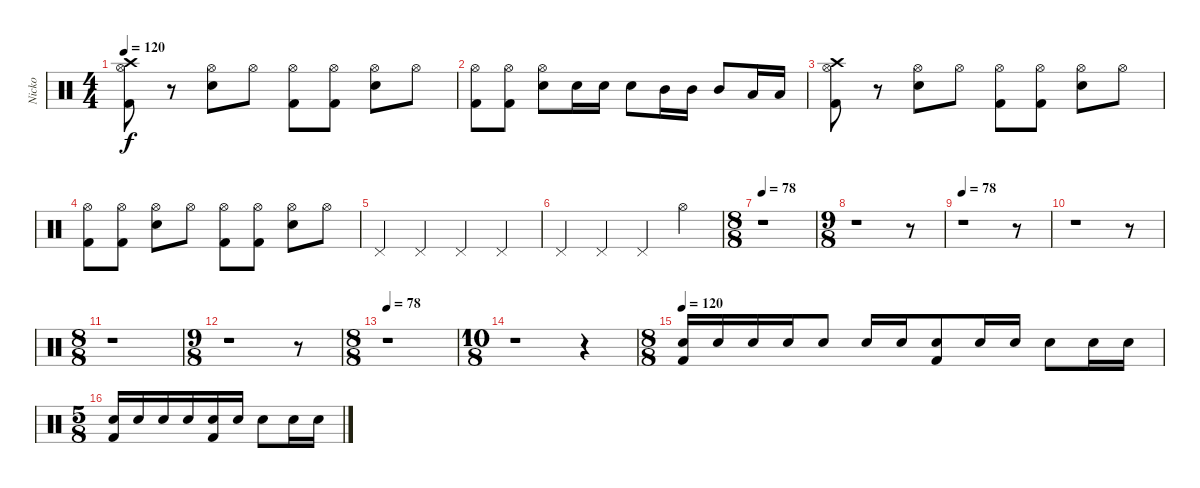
\track ("Nicko" "Nicko") {instrument percussion}
\staff {score}
\articulation defaults
\ts (4 4)
\tempo 120
\clef neutral
\ks c
("Kick (hit) 2" "Hi-Hat (open)" "Crash high (hit)").8{dy f} r.8 ("Snare (hit) 2" "Hi-Hat (open)").8 "Hi-Hat (open)".8 ("Kick (hit) 2" "Hi-Hat (open)").8 ("Kick (hit) 2" "Hi-Hat (open)").8 ("Snare (hit) 2" "Hi-Hat (open)").8 "Hi-Hat (open)".8 |
("Kick (hit) 2" "Hi-Hat (open)").8 ("Kick (hit) 2" "Hi-Hat (open)").8 ("Snare (hit) 2" "Hi-Hat (open)").8 "Snare (hit) 2".16 "Snare (hit) 2".16 "Snare (hit) 2".8 "Mid Tom (hit)".16 "Mid Tom (hit)".16 "Mid Tom (hit)".8 "Low Tom (hit)".16 "Low Tom (hit)".16 |
("Kick (hit) 2" "Hi-Hat (open)" "Crash high (hit)").8 r.8 ("Snare (hit) 2" "Hi-Hat (open)").8 "Hi-Hat (open)".8 ("Kick (hit) 2" "Hi-Hat (open)").8 ("Kick (hit) 2" "Hi-Hat (open)").8 ("Snare (hit) 2" "Hi-Hat (open)").8 "Hi-Hat (open)".8 |
("Kick (hit) 2" "Hi-Hat (open)").8 ("Kick (hit) 2" "Hi-Hat (open)").8 ("Snare (hit) 2" "Hi-Hat (open)").8 "Hi-Hat (open)".8 ("Kick (hit) 2" "Hi-Hat (open)").8 ("Kick (hit) 2" "Hi-Hat (open)").8 ("Snare (hit) 2" "Hi-Hat (open)").8 "Hi-Hat (open)".8 |
"Pedal Hi-Hat (hit)".4 "Pedal Hi-Hat (hit)".4 "Pedal Hi-Hat (hit)".4 "Pedal Hi-Hat (hit)".4 |
"Pedal Hi-Hat (hit)".4 "Pedal Hi-Hat (hit)".4 "Pedal Hi-Hat (hit)".4 "Hi-Hat (open)".4 |
\ts (8 8)
\tempo 78
r.1 |
\ts (9 8)
r.1 r.8 |
\tempo 78
r.1 r.8 |
r.1 r.8 |
\ts (8 8)
r.1 |
\ts (9 8)
r.1 r.8 |
\ts (8 8)
\tempo 78
r.1 |
\ts (10 8)
r.1 r.4 |
\ts (8 8)
\tempo 120
("Electric Snare (hit)" "Kick (hit) 2").16 "Electric Snare (hit)".16 "Electric Snare (hit)".16 "Electric Snare (hit)".16 "Electric Snare (hit)".8 "Electric Snare (hit)".16 "Electric Snare (hit)".16 ("Electric Snare (hit)" "Kick (hit) 2").8 "Electric Snare (hit)".16 "Electric Snare (hit)".16 "Electric Snare (hit)".8 "Electric Snare (hit)".16 "Electric Snare (hit)".16 |
\ts (5 8)
("Electric Snare (hit)" "Kick (hit) 2").16 "Electric Snare (hit)".16 "Electric Snare (hit)".16 "Electric Snare (hit)".16 ("Electric Snare (hit)" "Kick (hit) 2").16 "Electric Snare (hit)".16 "Electric Snare (hit)".8 "Electric Snare (hit)".16 "Electric Snare (hit)".16
